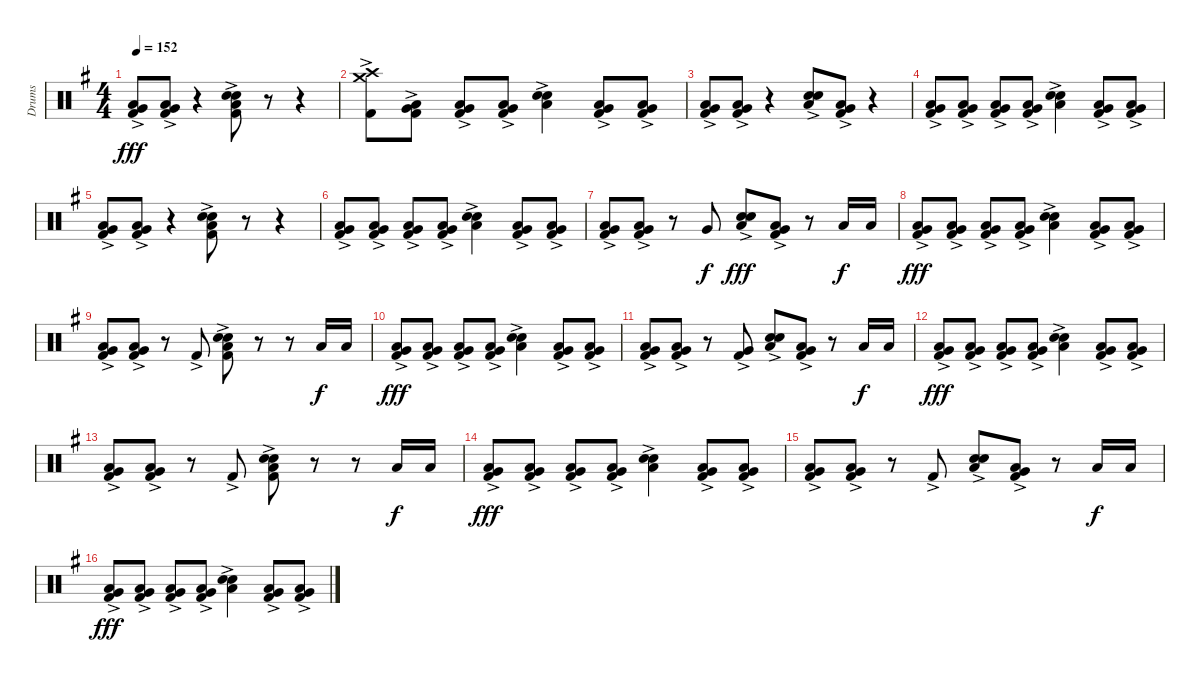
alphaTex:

\track ("Drums" "Drums") {instrument percussion}
\staff {score}
\articulation defaults
\ts (4 4)
\tempo 152
\clef neutral
\ks eminor
("Very Low Tom (hit)" "Low Floor Tom (hit)" "Kick (hit) 2"{ac}).8{dy fff} ("Very Low Tom (hit)" "Low Floor Tom (hit)" "Kick (hit) 2"{ac}).8 r.4 ("Snare (hit) 2"{ac} "Snare (hit) 2" "Low Floor Tom (hit)" "Kick (hit) 2"{ac}).8 r.8 r.4 |
("Crash high (hit)" "Crash medium (hit)" "Kick (hit) 2"{ac}).8 ("Very Low Tom (hit)" "Low Floor Tom (hit)" "Kick (hit) 2"{ac}).8 ("Very Low Tom (hit)" "Low Floor Tom (hit)" "Kick (hit) 2"{ac}).8 ("Very Low Tom (hit)" "Low Floor Tom (hit)" "Kick (hit) 2"{ac}).8 ("Snare (hit) 2"{ac} "Snare (hit) 2" "Low Floor Tom (hit)").4 ("Very Low Tom (hit)" "Low Floor Tom (hit)" "Kick (hit) 2"{ac}).8 ("Very Low Tom (hit)" "Low Floor Tom (hit)" "Kick (hit) 2"{ac}).8 |
("Very Low Tom (hit)" "Low Floor Tom (hit)" "Kick (hit) 2"{ac}).8 ("Very Low Tom (hit)" "Low Floor Tom (hit)" "Kick (hit) 2"{ac}).8 r.4 ("Snare (hit) 2"{ac} "Snare (hit) 2" "Low Floor Tom (hit)").8 ("Very Low Tom (hit)" "Low Floor Tom (hit)" "Kick (hit) 2"{ac}).8 r.4 |
("Very Low Tom (hit)" "Low Floor Tom (hit)" "Kick (hit) 2"{ac}).8 ("Very Low Tom (hit)" "Low Floor Tom (hit)" "Kick (hit) 2"{ac}).8 ("Very Low Tom (hit)" "Low Floor Tom (hit)" "Kick (hit) 2"{ac}).8 ("Very Low Tom (hit)" "Low Floor Tom (hit)" "Kick (hit) 2"{ac}).8 ("Snare (hit) 2"{ac} "Snare (hit) 2" "Low Floor Tom (hit)").4 ("Very Low Tom (hit)" "Low Floor Tom (hit)" "Kick (hit) 2"{ac}).8 ("Very Low Tom (hit)" "Low Floor Tom (hit)" "Kick (hit) 2"{ac}).8 |
("Very Low Tom (hit)" "Low Floor Tom (hit)" "Kick (hit) 2"{ac}).8 ("Very Low Tom (hit)" "Low Floor Tom (hit)" "Kick (hit) 2"{ac}).8 r.4 ("Snare (hit) 2"{ac} "Snare (hit) 2" "Low Floor Tom (hit)" "Kick (hit) 2"{ac}).8 r.8 r.4 |
("Very Low Tom (hit)"{ac} "Low Floor Tom (hit)"{ac} "Kick (hit) 2").8 ("Very Low Tom (hit)" "Low Floor Tom (hit)" "Kick (hit) 2"{ac}).8 ("Very Low Tom (hit)" "Low Floor Tom (hit)" "Kick (hit) 2"{ac}).8 ("Very Low Tom (hit)" "Low Floor Tom (hit)" "Kick (hit) 2"{ac}).8 ("Snare (hit) 2"{ac} "Snare (hit) 2" "Low Floor Tom (hit)").4 ("Very Low Tom (hit)" "Low Floor Tom (hit)" "Kick (hit) 2"{ac}).8 ("Very Low Tom (hit)"{ac} "Low Floor Tom (hit)" "Kick (hit) 2"{ac}).8 |
("Very Low Tom (hit)" "Low Floor Tom (hit)" "Kick (hit) 2"{ac}).8 ("Very Low Tom (hit)"{ac} "Low Floor Tom (hit)" "Kick (hit) 2"{ac}).8 r.8 "Very Low Tom (hit)".8{dy f} ("Snare (hit) 2"{ac} "Snare (hit) 2" "Low Floor Tom (hit)").8{dy fff} ("Very Low Tom (hit)"{ac} "Low Floor Tom (hit)"{ac} "Kick (hit) 2"{ac}).8 r.8 "Low Tom (hit)".16{dy f} "Low Tom (hit)".16 |
("Very Low Tom (hit)"{ac} "Low Floor Tom (hit)" "Kick (hit) 2"{ac}).8{dy fff} ("Very Low Tom (hit)" "Low Floor Tom (hit)" "Kick (hit) 2"{ac}).8 ("Very Low Tom (hit)" "Low Floor Tom (hit)" "Kick (hit) 2"{ac}).8 ("Very Low Tom (hit)" "Low Floor Tom (hit)" "Kick (hit) 2"{ac}).8 ("Snare (hit) 2"{ac} "Snare (hit) 2" "Low Floor Tom (hit)").4 ("Very Low Tom (hit)"{ac} "Low Floor Tom (hit)" "Kick (hit) 2"{ac}).8 ("Very Low Tom (hit)" "Low Floor Tom (hit)" "Kick (hit) 2"{ac}).8 |
("Very Low Tom (hit)" "Low Floor Tom (hit)" "Kick (hit) 2"{ac}).8 ("Very Low Tom (hit)"{ac} "Low Floor Tom (hit)" "Kick (hit) 2"{ac}).8 r.8 "Kick (hit) 2"{ac}.8 ("Snare (hit) 2"{ac} "Snare (hit) 2" "Low Floor Tom (hit)" "Kick (hit) 2").8 r.8 r.8 "Low Tom (hit)".16{dy f} "Low Tom (hit)".16 |
("Very Low Tom (hit)"{ac} "Low Floor Tom (hit)" "Kick (hit) 2"{ac}).8{dy fff} ("Very Low Tom (hit)" "Low Floor Tom (hit)" "Kick (hit) 2"{ac}).8 ("Very Low Tom (hit)" "Low Floor Tom (hit)" "Kick (hit) 2"{ac}).8 ("Very Low Tom (hit)" "Low Floor Tom (hit)" "Kick (hit) 2"{ac}).8 ("Snare (hit) 2"{ac} "Snare (hit) 2" "Low Floor Tom (hit)").4 ("Very Low Tom (hit)" "Low Floor Tom (hit)" "Kick (hit) 2"{ac}).8 ("Very Low Tom (hit)" "Low Floor Tom (hit)" "Kick (hit) 2"{ac}).8 |
("Very Low Tom (hit)" "Low Floor Tom (hit)" "Kick (hit) 2"{ac}).8 ("Very Low Tom (hit)"{ac} "Low Floor Tom (hit)" "Kick (hit) 2"{ac}).8 r.8 ("Very Low Tom (hit)" "Kick (hit) 2"{ac}).8 ("Snare (hit) 2"{ac} "Snare (hit) 2" "Low Floor Tom (hit)").8 ("Very Low Tom (hit)"{ac} "Low Floor Tom (hit)"{ac} "Kick (hit) 2"{ac}).8 r.8 "Low Tom (hit)".16{dy f} "Low Tom (hit)".16 |
("Very Low Tom (hit)"{ac} "Low Floor Tom (hit)" "Kick (hit) 2"{ac}).8{dy fff} ("Very Low Tom (hit)" "Low Floor Tom (hit)" "Kick (hit) 2"{ac}).8 ("Very Low Tom (hit)" "Low Floor Tom (hit)" "Kick (hit) 2"{ac}).8 ("Very Low Tom (hit)" "Low Floor Tom (hit)" "Kick (hit) 2"{ac}).8 ("Snare (hit) 2"{ac} "Snare (hit) 2" "Low Floor Tom (hit)").4 ("Very Low Tom (hit)"{ac} "Low Floor Tom (hit)" "Kick (hit) 2"{ac}).8 ("Very Low Tom (hit)" "Low Floor Tom (hit)" "Kick (hit) 2"{ac}).8 |
("Very Low Tom (hit)" "Low Floor Tom (hit)" "Kick (hit) 2"{ac}).8 ("Very Low Tom (hit)"{ac} "Low Floor Tom (hit)" "Kick (hit) 2"{ac}).8 r.8 "Kick (hit) 2"{ac}.8 ("Snare (hit) 2"{ac} "Snare (hit) 2" "Low Floor Tom (hit)" "Kick (hit) 2").8 r.8 r.8 "Low Tom (hit)".16{dy f} "Low Tom (hit)".16 |
("Very Low Tom (hit)"{ac} "Low Floor Tom (hit)" "Kick (hit) 2"{ac}).8{dy fff} ("Very Low Tom (hit)" "Low Floor Tom (hit)" "Kick (hit) 2"{ac}).8 ("Very Low Tom (hit)" "Low Floor Tom (hit)" "Kick (hit) 2"{ac}).8 ("Very Low Tom (hit)" "Low Floor Tom (hit)" "Kick (hit) 2"{ac}).8 ("Snare (hit) 2"{ac} "Snare (hit) 2" "Low Floor Tom (hit)").4 ("Very Low Tom (hit)"{ac} "Low Floor Tom (hit)" "Kick (hit) 2"{ac}).8 ("Very Low Tom (hit)" "Low Floor Tom (hit)" "Kick (hit) 2"{ac}).8 |
("Very Low Tom (hit)" "Low Floor Tom (hit)" "Kick (hit) 2"{ac}).8 ("Very Low Tom (hit)"{ac} "Low Floor Tom (hit)" "Kick (hit) 2"{ac}).8 r.8 "Kick (hit) 2"{ac}.8 ("Snare (hit) 2"{ac} "Snare (hit) 2" "Low Floor Tom (hit)").8 ("Very Low Tom (hit)" "Low Floor Tom (hit)" "Kick (hit) 2"{ac}).8 r.8 "Low Tom (hit)".16{dy f} "Low Tom (hit)".16 |
("Very Low Tom (hit)"{ac} "Low Floor Tom (hit)" "Kick (hit) 2"{ac}).8{dy fff} ("Very Low Tom (hit)" "Low Floor Tom (hit)" "Kick (hit) 2"{ac}).8 ("Very Low Tom (hit)" "Low Floor Tom (hit)" "Kick (hit) 2"{ac}).8 ("Very Low Tom (hit)" "Low Floor Tom (hit)" "Kick (hit) 2"{ac}).8 ("Snare (hit) 2"{ac} "Snare (hit) 2" "Low Floor Tom (hit)").4 ("Very Low Tom (hit)" "Low Floor Tom (hit)" "Kick (hit) 2"{ac}).8 ("Very Low Tom (hit)"{ac} "Low Floor Tom (hit)" "Kick (hit) 2"{ac}).8
